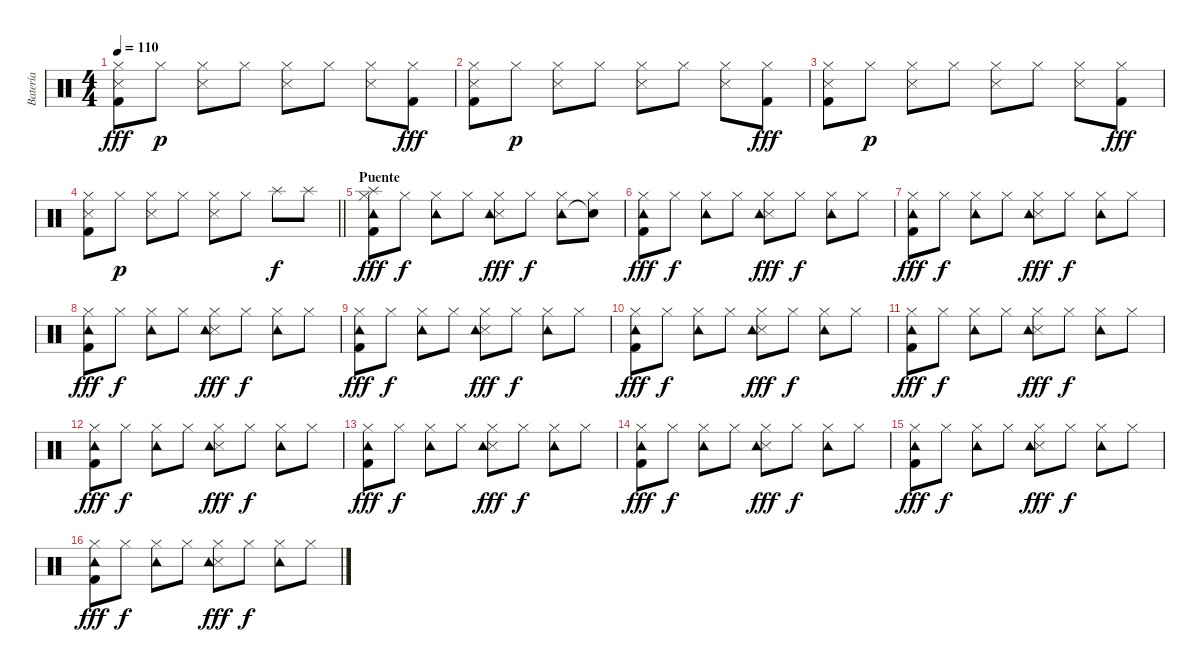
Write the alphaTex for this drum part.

\track ("Batería" "Batería") {instrument percussion}
\staff {score}
\articulation defaults
\ts (4 4)
\tempo 110
\clef neutral
\ks c
("Hi-Hat (closed)" "Snare (side stick) 3" "Kick (hit) 2").8{dy fff} "Hi-Hat (closed)".8{dy p} ("Hi-Hat (closed)" "Snare (side stick) 3").8 "Hi-Hat (closed)".8 ("Hi-Hat (closed)" "Snare (side stick) 3").8 "Hi-Hat (closed)".8 ("Hi-Hat (closed)" "Snare (side stick) 3").8 ("Hi-Hat (closed)" "Kick (hit) 2").8{dy fff} |
("Hi-Hat (closed)" "Snare (side stick) 3" "Kick (hit) 2").8 "Hi-Hat (closed)".8{dy p} ("Hi-Hat (closed)" "Snare (side stick) 3").8 "Hi-Hat (closed)".8 ("Hi-Hat (closed)" "Snare (side stick) 3").8 "Hi-Hat (closed)".8 ("Hi-Hat (closed)" "Snare (side stick) 3").8 ("Hi-Hat (closed)" "Kick (hit) 2").8{dy fff} |
("Hi-Hat (closed)" "Snare (side stick) 3" "Kick (hit) 2").8 "Hi-Hat (closed)".8{dy p} ("Hi-Hat (closed)" "Snare (side stick) 3").8 "Hi-Hat (closed)".8 ("Hi-Hat (closed)" "Snare (side stick) 3").8 "Hi-Hat (closed)".8 ("Hi-Hat (closed)" "Snare (side stick) 3").8 ("Hi-Hat (closed)" "Kick (hit) 2").8{dy fff} |
\barLineRight lightlight
("Hi-Hat (closed)" "Snare (side stick) 3" "Kick (hit) 2").8 "Hi-Hat (closed)".8{dy p} ("Hi-Hat (closed)" "Snare (side stick) 3").8 "Hi-Hat (closed)".8 ("Hi-Hat (closed)" "Snare (side stick) 3").8 "Hi-Hat (closed)".8 "Splash (hit)".8{dy f} "Splash (hit)".8 |
\section ("" "Puente")
("Hi-Hat (closed)" "Splash (hit)" "Kick (hit) 2" "Tambourine (hit)").8{dy fff} "Hi-Hat (closed)".8{dy f} ("Hi-Hat (closed)" "Tambourine (hit)").8 "Hi-Hat (closed)".8 ("Hi-Hat (closed)" "Snare (side stick) 3" "Tambourine (hit)").8{dy fff} "Hi-Hat (closed)".8{dy f} ("Hi-Hat (closed)" "Tambourine (hit)").8 ("Hi-Hat (closed)" "Snare (hit)"{t}).8 |
("Hi-Hat (closed)" "Kick (hit) 2" "Tambourine (hit)").8{dy fff} "Hi-Hat (closed)".8{dy f} ("Hi-Hat (closed)" "Tambourine (hit)").8 "Hi-Hat (closed)".8 ("Hi-Hat (closed)" "Snare (side stick) 3" "Tambourine (hit)").8{dy fff} "Hi-Hat (closed)".8{dy f} ("Hi-Hat (closed)" "Tambourine (hit)").8 "Hi-Hat (closed)".8 |
("Hi-Hat (closed)" "Kick (hit) 2" "Tambourine (hit)").8{dy fff} "Hi-Hat (closed)".8{dy f} ("Hi-Hat (closed)" "Tambourine (hit)").8 "Hi-Hat (closed)".8 ("Hi-Hat (closed)" "Snare (side stick) 3" "Tambourine (hit)").8{dy fff} "Hi-Hat (closed)".8{dy f} ("Hi-Hat (closed)" "Tambourine (hit)").8 "Hi-Hat (closed)".8 |
("Hi-Hat (closed)" "Kick (hit) 2" "Tambourine (hit)").8{dy fff} "Hi-Hat (closed)".8{dy f} ("Hi-Hat (closed)" "Tambourine (hit)").8 "Hi-Hat (closed)".8 ("Hi-Hat (closed)" "Snare (side stick) 3" "Tambourine (hit)").8{dy fff} "Hi-Hat (closed)".8{dy f} ("Hi-Hat (closed)" "Tambourine (hit)").8 "Hi-Hat (closed)".8 |
("Hi-Hat (closed)" "Kick (hit) 2" "Tambourine (hit)").8{dy fff} "Hi-Hat (closed)".8{dy f} ("Hi-Hat (closed)" "Tambourine (hit)").8 "Hi-Hat (closed)".8 ("Hi-Hat (closed)" "Snare (side stick) 3" "Tambourine (hit)").8{dy fff} "Hi-Hat (closed)".8{dy f} ("Hi-Hat (closed)" "Tambourine (hit)").8 "Hi-Hat (closed)".8 |
("Hi-Hat (closed)" "Kick (hit) 2" "Tambourine (hit)").8{dy fff} "Hi-Hat (closed)".8{dy f} ("Hi-Hat (closed)" "Tambourine (hit)").8 "Hi-Hat (closed)".8 ("Hi-Hat (closed)" "Snare (side stick) 3" "Tambourine (hit)").8{dy fff} "Hi-Hat (closed)".8{dy f} ("Hi-Hat (closed)" "Tambourine (hit)").8 "Hi-Hat (closed)".8 |
("Hi-Hat (closed)" "Kick (hit) 2" "Tambourine (hit)").8{dy fff} "Hi-Hat (closed)".8{dy f} ("Hi-Hat (closed)" "Tambourine (hit)").8 "Hi-Hat (closed)".8 ("Hi-Hat (closed)" "Snare (side stick) 3" "Tambourine (hit)").8{dy fff} "Hi-Hat (closed)".8{dy f} ("Hi-Hat (closed)" "Tambourine (hit)").8 "Hi-Hat (closed)".8 |
("Hi-Hat (closed)" "Kick (hit) 2" "Tambourine (hit)").8{dy fff} "Hi-Hat (closed)".8{dy f} ("Hi-Hat (closed)" "Tambourine (hit)").8 "Hi-Hat (closed)".8 ("Hi-Hat (closed)" "Snare (side stick) 3" "Tambourine (hit)").8{dy fff} "Hi-Hat (closed)".8{dy f} ("Hi-Hat (closed)" "Tambourine (hit)").8 "Hi-Hat (closed)".8 |
("Hi-Hat (closed)" "Kick (hit) 2" "Tambourine (hit)").8{dy fff} "Hi-Hat (closed)".8{dy f} ("Hi-Hat (closed)" "Tambourine (hit)").8 "Hi-Hat (closed)".8 ("Hi-Hat (closed)" "Snare (side stick) 3" "Tambourine (hit)").8{dy fff} "Hi-Hat (closed)".8{dy f} ("Hi-Hat (closed)" "Tambourine (hit)").8 "Hi-Hat (closed)".8 |
("Hi-Hat (closed)" "Kick (hit) 2" "Tambourine (hit)").8{dy fff} "Hi-Hat (closed)".8{dy f} ("Hi-Hat (closed)" "Tambourine (hit)").8 "Hi-Hat (closed)".8 ("Hi-Hat (closed)" "Snare (side stick) 3" "Tambourine (hit)").8{dy fff} "Hi-Hat (closed)".8{dy f} ("Hi-Hat (closed)" "Tambourine (hit)").8 "Hi-Hat (closed)".8 |
("Hi-Hat (closed)" "Kick (hit) 2" "Tambourine (hit)").8{dy fff} "Hi-Hat (closed)".8{dy f} ("Hi-Hat (closed)" "Tambourine (hit)").8 "Hi-Hat (closed)".8 ("Hi-Hat (closed)" "Snare (side stick) 3" "Tambourine (hit)").8{dy fff} "Hi-Hat (closed)".8{dy f} ("Hi-Hat (closed)" "Tambourine (hit)").8 "Hi-Hat (closed)".8 |
("Hi-Hat (closed)" "Kick (hit) 2" "Tambourine (hit)").8{dy fff} "Hi-Hat (closed)".8{dy f} ("Hi-Hat (closed)" "Tambourine (hit)").8 "Hi-Hat (closed)".8 ("Hi-Hat (closed)" "Snare (side stick) 3" "Tambourine (hit)").8{dy fff} "Hi-Hat (closed)".8{dy f} ("Hi-Hat (closed)" "Tambourine (hit)").8 "Hi-Hat (closed)".8
